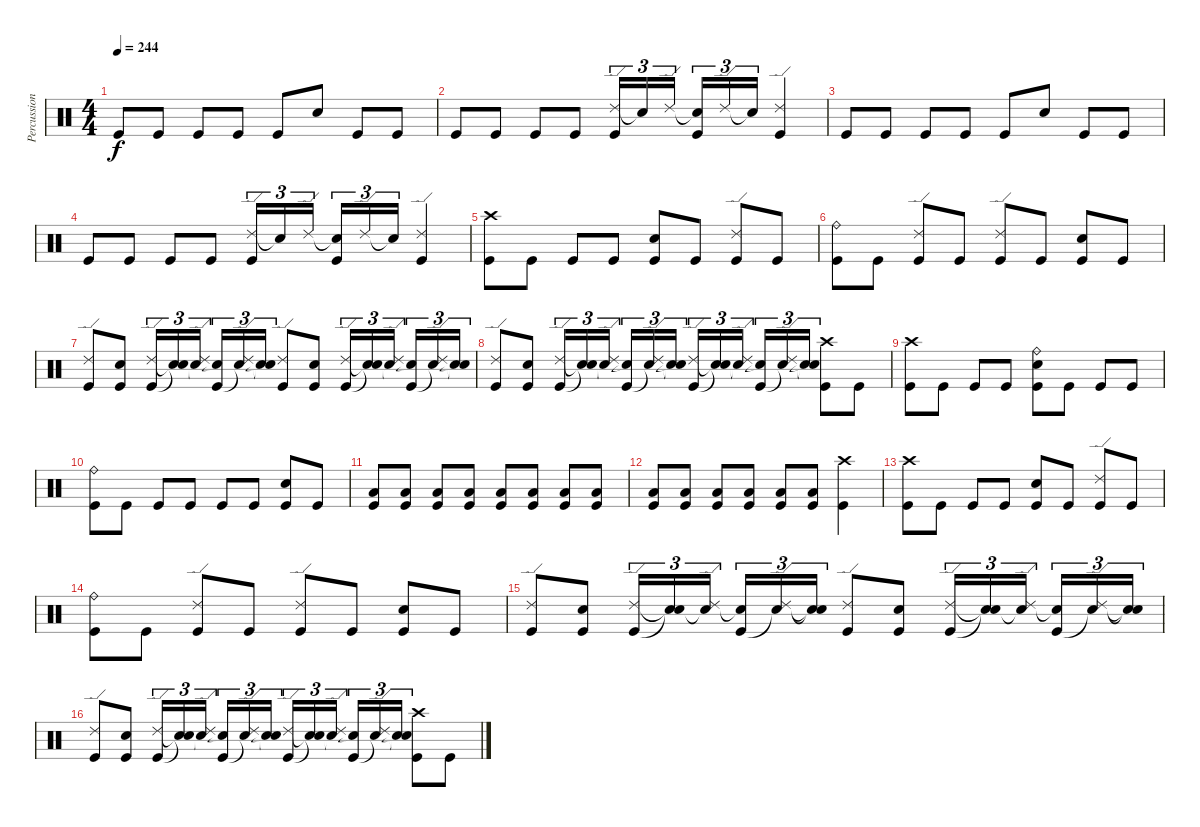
\track ("Percussion" "Percussion") {instrument percussion}
\staff {score}
\articulation defaults
\ts (4 4)
\tempo 244
\clef neutral
\ks c "Kick (hit)".8{dy f} "Kick (hit)".8 "Kick (hit)".8 "Kick (hit)".8 "Kick (hit)".8 "Snare (hit) 2".8 "Kick (hit)".8 "Kick (hit)".8
|
"Kick (hit)".8 "Kick (hit)".8 "Kick (hit)".8 "Kick (hit)".8 ("Ride (edge) 2" "Kick (hit)").16{tu (3 2)} "Snare (hit)"{t}.16{tu (3 2)} "Ride (edge) 2".16{tu (3 2)} ("Snare (hit)"{t} "Kick (hit)").16{tu (3 2)} "Ride (edge) 2".16{tu (3 2)} "Snare (hit)"{t}.16{tu (3 2)} ("Ride (edge) 2" "Kick (hit)").4 |
"Kick (hit)".8 "Kick (hit)".8 "Kick (hit)".8 "Kick (hit)".8 "Kick (hit)".8 "Snare (hit) 2".8 "Kick (hit)".8 "Kick (hit)".8 |
"Kick (hit)".8 "Kick (hit)".8 "Kick (hit)".8 "Kick (hit)".8 ("Ride (edge) 2" "Kick (hit)").16{tu (3 2)} "Snare (hit)"{t}.16{tu (3 2)} "Ride (edge) 2".16{tu (3 2)} ("Snare (hit)"{t} "Kick (hit)").16{tu (3 2)} "Ride (edge) 2".16{tu (3 2)} "Snare (hit)"{t}.16{tu (3 2)} ("Ride (edge) 2" "Kick (hit)").4 |
("Crash high (hit)" "Kick (hit)").8 "Kick (hit)".8 "Kick (hit)".8 "Kick (hit)".8 ("Snare (hit) 2" "Kick (hit)").8 "Kick (hit)".8 ("Ride (edge) 2" "Kick (hit)").8 "Kick (hit)".8 |
("Ride (bell)" "Kick (hit)").8 "Kick (hit)".8 ("Ride (edge) 2" "Kick (hit)").8 "Kick (hit)".8 ("Ride (edge) 2" "Kick (hit)").8 "Kick (hit)".8 ("Snare (hit) 2" "Kick (hit)").8 "Kick (hit)".8 |
("Ride (edge) 2" "Kick (hit)").8 ("Snare (hit) 2" "Kick (hit)").8 ("Ride (edge) 2" "Kick (hit)").16{tu (3 2)} ("Snare (hit)"{t} "Snare (hit)"{t}).16{tu (3 2)} ("Ride (edge) 2" "Snare (hit)"{t}).16{tu (3 2)} ("Snare (hit)"{t} "Kick (hit)").16{tu (3 2)} ("Ride (edge) 2" "Snare (hit)"{t}).16{tu (3 2)} ("Snare (hit)"{t} "Snare (hit)"{t}).16{tu (3 2)} ("Ride (edge) 2" "Kick (hit)").8 ("Snare (hit) 2" "Kick (hit)").8 ("Ride (edge) 2" "Kick (hit)").16{tu (3 2)} ("Snare (hit)"{t} "Snare (hit)"{t}).16{tu (3 2)} ("Ride (edge) 2" "Snare (hit)"{t}).16{tu (3 2)} ("Snare (hit)"{t} "Kick (hit)").16{tu (3 2)} ("Ride (edge) 2" "Snare (hit)"{t}).16{tu (3 2)} ("Snare (hit)"{t} "Snare (hit)"{t}).16{tu (3 2)} |
("Ride (edge) 2" "Kick (hit)").8 ("Snare (hit) 2" "Kick (hit)").8 ("Ride (edge) 2" "Kick (hit)").16{tu (3 2)} ("Snare (hit)"{t} "Snare (hit)"{t}).16{tu (3 2)} ("Ride (edge) 2" "Snare (hit)"{t}).16{tu (3 2)} ("Snare (hit)"{t} "Kick (hit)").16{tu (3 2)} ("Ride (edge) 2" "Snare (hit)"{t}).16{tu (3 2)} ("Snare (hit)"{t} "Snare (hit)"{t}).16{tu (3 2)} ("Ride (edge) 2" "Kick (hit)").16{tu (3 2)} ("Snare (hit)"{t} "Snare (hit)"{t}).16{tu (3 2)} ("Ride (edge) 2" "Snare (hit)"{t}).16{tu (3 2)} ("Snare (hit)"{t} "Kick (hit)").16{tu (3 2)} ("Ride (edge) 2" "Snare (hit)"{t}).16{tu (3 2)} ("Snare (hit)"{t} "Snare (hit)"{t}).16{tu (3 2)} ("Crash high (hit)" "Kick (hit)").8 "Kick (hit)".8 |
("Crash high (hit)" "Kick (hit)").8 "Kick (hit)".8 "Kick (hit)".8 "Kick (hit)".8 ("Ride (bell)" "Snare (hit) 2" "Kick (hit)").8 "Kick (hit)".8 "Kick (hit)".8 "Kick (hit)".8 |
("Ride (bell)" "Kick (hit)").8 "Kick (hit)".8 "Kick (hit)".8 "Kick (hit)".8 "Kick (hit)".8 "Kick (hit)".8 ("Snare (hit) 2" "Kick (hit)").8 "Kick (hit)".8 |
("Low Tom (hit)" "Kick (hit)").8 ("Low Tom (hit)" "Kick (hit)").8 ("Low Tom (hit)" "Kick (hit)").8 ("Low Tom (hit)" "Kick (hit)").8 ("Low Tom (hit)" "Kick (hit)").8 ("Low Tom (hit)" "Kick (hit)").8 ("Low Tom (hit)" "Kick (hit)").8 ("Low Tom (hit)" "Kick (hit)").8 |
("Low Tom (hit)" "Kick (hit)").8 ("Low Tom (hit)" "Kick (hit)").8 ("Low Tom (hit)" "Kick (hit)").8 ("Low Tom (hit)" "Kick (hit)").8 ("Low Tom (hit)" "Kick (hit)").8 ("Low Tom (hit)" "Kick (hit)").8 ("Crash high (hit)" "Kick (hit)").4 |
("Crash high (hit)" "Kick (hit)").8 "Kick (hit)".8 "Kick (hit)".8 "Kick (hit)".8 ("Snare (hit) 2" "Kick (hit)").8 "Kick (hit)".8 ("Ride (edge) 2" "Kick (hit)").8 "Kick (hit)".8 |
("Ride (bell)" "Kick (hit)").8 "Kick (hit)".8 ("Ride (edge) 2" "Kick (hit)").8 "Kick (hit)".8 ("Ride (edge) 2" "Kick (hit)").8 "Kick (hit)".8 ("Snare (hit) 2" "Kick (hit)").8 "Kick (hit)".8 |
("Ride (edge) 2" "Kick (hit)").8 ("Snare (hit) 2" "Kick (hit)").8 ("Ride (edge) 2" "Kick (hit)").16{tu (3 2)} ("Snare (hit)"{t} "Snare (hit)"{t}).16{tu (3 2)} ("Ride (edge) 2" "Snare (hit)"{t}).16{tu (3 2)} ("Snare (hit)"{t} "Kick (hit)").16{tu (3 2)} ("Ride (edge) 2" "Snare (hit)"{t}).16{tu (3 2)} ("Snare (hit)"{t} "Snare (hit)"{t}).16{tu (3 2)} ("Ride (edge) 2" "Kick (hit)").8 ("Snare (hit) 2" "Kick (hit)").8 ("Ride (edge) 2" "Kick (hit)").16{tu (3 2)} ("Snare (hit)"{t} "Snare (hit)"{t}).16{tu (3 2)} ("Ride (edge) 2" "Snare (hit)"{t}).16{tu (3 2)} ("Snare (hit)"{t} "Kick (hit)").16{tu (3 2)} ("Ride (edge) 2" "Snare (hit)"{t}).16{tu (3 2)} ("Snare (hit)"{t} "Snare (hit)"{t}).16{tu (3 2)} |
("Ride (edge) 2" "Kick (hit)").8 ("Snare (hit) 2" "Kick (hit)").8 ("Ride (edge) 2" "Kick (hit)").16{tu (3 2)} ("Snare (hit)"{t} "Snare (hit)"{t}).16{tu (3 2)} ("Ride (edge) 2" "Snare (hit)"{t}).16{tu (3 2)} ("Snare (hit)"{t} "Kick (hit)").16{tu (3 2)} ("Ride (edge) 2" "Snare (hit)"{t}).16{tu (3 2)} ("Snare (hit)"{t} "Snare (hit)"{t}).16{tu (3 2)} ("Ride (edge) 2" "Kick (hit)").16{tu (3 2)} ("Snare (hit)"{t} "Snare (hit)"{t}).16{tu (3 2)} ("Ride (edge) 2" "Snare (hit)"{t}).16{tu (3 2)} ("Snare (hit)"{t} "Kick (hit)").16{tu (3 2)} ("Ride (edge) 2" "Snare (hit)"{t}).16{tu (3 2)} ("Snare (hit)"{t} "Snare (hit)"{t}).16{tu (3 2)} ("Crash high (hit)" "Kick (hit)").8 "Kick (hit)".8
